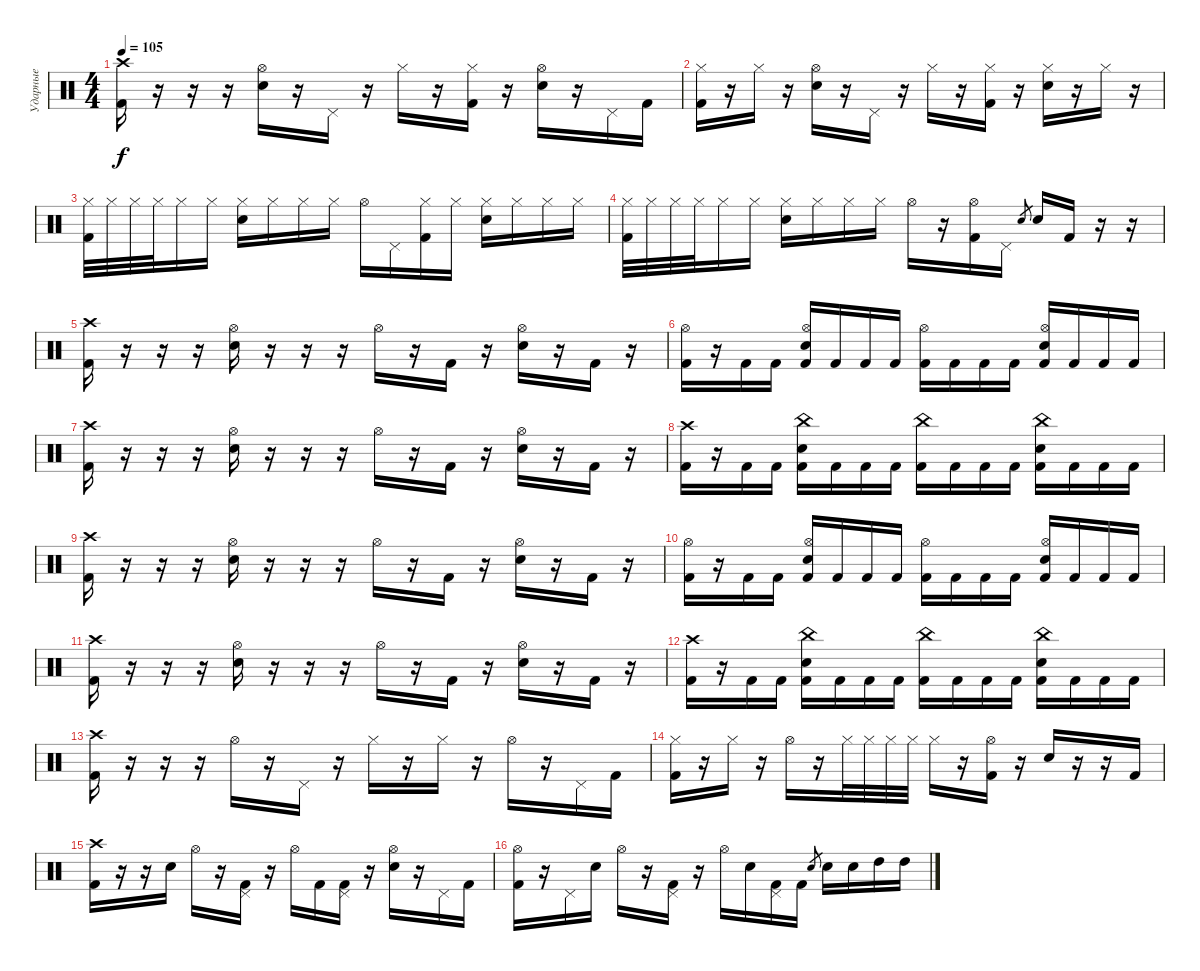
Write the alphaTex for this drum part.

\track ("Ударные" "Ударные") {instrument percussion}
\staff {score}
\articulation defaults
\ts (4 4)
\tempo 105
\clef neutral
\ks c
("Crash high (hit)" "Kick (hit) 2").16{dy f} r.16 r.16 r.16 ("Hi-Hat (open)" "Electric Snare (hit)").16 r.16 "Pedal Hi-Hat (hit)".16 r.16 "Hi-Hat (closed)".16 r.16 ("Hi-Hat (closed)" "Kick (hit) 2").16 r.16 ("Hi-Hat (open)" "Electric Snare (hit)").16 r.16 "Pedal Hi-Hat (hit)".16 "Kick (hit) 2".16 |
("Hi-Hat (closed)" "Kick (hit) 2").16 r.16 "Hi-Hat (closed)".16 r.16 ("Hi-Hat (open)" "Electric Snare (hit)").16 r.16 "Pedal Hi-Hat (hit)".16 r.16 "Hi-Hat (closed)".16 r.16 ("Hi-Hat (closed)" "Kick (hit) 2").16 r.16 ("Hi-Hat (closed)" "Electric Snare (hit)").16 r.16 "Hi-Hat (closed)".16 r.16 |
("Hi-Hat (closed)" "Kick (hit) 2").32 "Hi-Hat (closed)".32 "Hi-Hat (closed)".32 "Hi-Hat (closed)".32 "Hi-Hat (closed)".16 "Hi-Hat (closed)".16 ("Hi-Hat (closed)" "Electric Snare (hit)").16 "Hi-Hat (closed)".16 "Hi-Hat (closed)".16 "Hi-Hat (closed)".16 "Hi-Hat (open)".16 "Pedal Hi-Hat (hit)".16 ("Hi-Hat (closed)" "Kick (hit) 2").16 "Hi-Hat (closed)".16 ("Hi-Hat (closed)" "Electric Snare (hit)").16 "Hi-Hat (closed)".16 "Hi-Hat (closed)".16 "Hi-Hat (closed)".16 |
("Hi-Hat (closed)" "Kick (hit) 2").32 "Hi-Hat (closed)".32 "Hi-Hat (closed)".32 "Hi-Hat (closed)".32 "Hi-Hat (closed)".16 "Hi-Hat (closed)".16 ("Hi-Hat (closed)" "Electric Snare (hit)").16 "Hi-Hat (closed)".16 "Hi-Hat (closed)".16 "Hi-Hat (closed)".16 "Hi-Hat (open)".16 r.16 ("Hi-Hat (open)" "Kick (hit) 2").16 "Pedal Hi-Hat (hit)".16 "Electric Snare (hit)".8{gr} "Electric Snare (hit)".16 "Kick (hit) 2".16 r.16 r.16 |
("Crash high (hit)" "Kick (hit) 2").16 r.16 r.16 r.16 ("Hi-Hat (open)" "Electric Snare (hit)").16 r.16 r.16 r.16 "Hi-Hat (open)".16 r.16 "Kick (hit) 2".16 r.16 ("Hi-Hat (open)" "Electric Snare (hit)").16 r.16 "Kick (hit) 2".16 r.16 |
("Hi-Hat (open)" "Kick (hit) 2").16 r.16 "Kick (hit) 2".16 "Kick (hit) 2".16 ("Hi-Hat (open)" "Electric Snare (hit)" "Kick (hit) 2").16 "Kick (hit) 2".16 "Kick (hit) 2".16 "Kick (hit) 2".16 ("Hi-Hat (open)" "Kick (hit) 2").16 "Kick (hit) 2".16 "Kick (hit) 2".16 "Kick (hit) 2".16 ("Hi-Hat (open)" "Electric Snare (hit)" "Kick (hit) 2").16 "Kick (hit) 2".16 "Kick (hit) 2".16 "Kick (hit) 2".16 |
("Crash high (hit)" "Kick (hit) 2").16 r.16 r.16 r.16 ("Hi-Hat (open)" "Electric Snare (hit)").16 r.16 r.16 r.16 "Hi-Hat (open)".16 r.16 "Kick (hit) 2".16 r.16 ("Hi-Hat (open)" "Electric Snare (hit)").16 r.16 "Kick (hit) 2".16 r.16 |
("Crash high (hit)" "Kick (hit) 2").16 r.16 "Kick (hit) 2".16 "Kick (hit) 2".16 ("China (hit)" "Electric Snare (hit)" "Kick (hit) 2").16 "Kick (hit) 2".16 "Kick (hit) 2".16 "Kick (hit) 2".16 ("China (hit)" "Kick (hit) 2").16 "Kick (hit) 2".16 "Kick (hit) 2".16 "Kick (hit) 2".16 ("China (hit)" "Electric Snare (hit)" "Kick (hit) 2").16 "Kick (hit) 2".16 "Kick (hit) 2".16 "Kick (hit) 2".16 |
("Crash high (hit)" "Kick (hit) 2").16 r.16 r.16 r.16 ("Hi-Hat (open)" "Electric Snare (hit)").16 r.16 r.16 r.16 "Hi-Hat (open)".16 r.16 "Kick (hit) 2".16 r.16 ("Hi-Hat (open)" "Electric Snare (hit)").16 r.16 "Kick (hit) 2".16 r.16 |
("Hi-Hat (open)" "Kick (hit) 2").16 r.16 "Kick (hit) 2".16 "Kick (hit) 2".16 ("Hi-Hat (open)" "Electric Snare (hit)" "Kick (hit) 2").16 "Kick (hit) 2".16 "Kick (hit) 2".16 "Kick (hit) 2".16 ("Hi-Hat (open)" "Kick (hit) 2").16 "Kick (hit) 2".16 "Kick (hit) 2".16 "Kick (hit) 2".16 ("Hi-Hat (open)" "Electric Snare (hit)" "Kick (hit) 2").16 "Kick (hit) 2".16 "Kick (hit) 2".16 "Kick (hit) 2".16 |
("Crash high (hit)" "Kick (hit) 2").16 r.16 r.16 r.16 ("Hi-Hat (open)" "Electric Snare (hit)").16 r.16 r.16 r.16 "Hi-Hat (open)".16 r.16 "Kick (hit) 2".16 r.16 ("Hi-Hat (open)" "Electric Snare (hit)").16 r.16 "Kick (hit) 2".16 r.16 |
("Crash high (hit)" "Kick (hit) 2").16 r.16 "Kick (hit) 2".16 "Kick (hit) 2".16 ("China (hit)" "Electric Snare (hit)" "Kick (hit) 2").16 "Kick (hit) 2".16 "Kick (hit) 2".16 "Kick (hit) 2".16 ("China (hit)" "Kick (hit) 2").16 "Kick (hit) 2".16 "Kick (hit) 2".16 "Kick (hit) 2".16 ("China (hit)" "Electric Snare (hit)" "Kick (hit) 2").16 "Kick (hit) 2".16 "Kick (hit) 2".16 "Kick (hit) 2".16 |
("Crash high (hit)" "Kick (hit) 2").16 r.16 r.16 r.16 "Hi-Hat (open)".16 r.16 "Pedal Hi-Hat (hit)".16 r.16 "Hi-Hat (closed)".16 r.16 "Hi-Hat (closed)".16 r.16 "Hi-Hat (open)".16 r.16 "Pedal Hi-Hat (hit)".16 "Kick (hit) 2".16 |
("Hi-Hat (closed)" "Kick (hit) 2").16 r.16 "Hi-Hat (closed)".16 r.16 "Hi-Hat (open)".16 r.16 "Hi-Hat (closed)".32 "Hi-Hat (closed)".32 "Hi-Hat (closed)".32 "Hi-Hat (closed)".32 "Hi-Hat (closed)".16 r.16 ("Hi-Hat (open)" "Kick (hit) 2").16 r.16 "Electric Snare (hit)".16 r.16 r.16 "Kick (hit) 2".16 |
("Crash high (hit)" "Kick (hit) 2").16 r.16 r.16 "Electric Snare (hit)".16 "Hi-Hat (open)".16 r.16 ("Pedal Hi-Hat (hit)" "Kick (hit) 2").16 r.16 "Hi-Hat (open)".16 "Kick (hit) 2".16 ("Pedal Hi-Hat (hit)" "Kick (hit) 2").16 r.16 ("Hi-Hat (open)" "Electric Snare (hit)").16 r.16 "Pedal Hi-Hat (hit)".16 "Kick (hit) 2".16 |
("Hi-Hat (open)" "Kick (hit) 2").16 r.16 "Pedal Hi-Hat (hit)".16 "Electric Snare (hit)".16 "Hi-Hat (open)".16 r.16 ("Pedal Hi-Hat (hit)" "Kick (hit) 2").16 r.16 "Hi-Hat (open)".16 "Electric Snare (hit)".16 ("Pedal Hi-Hat (hit)" "Kick (hit) 2").16 "Kick (hit) 2".16 "Electric Snare (hit)".8{gr} "Electric Snare (hit)".16 "Electric Snare (hit)".16 "High Tom (hit)".16 "High Tom (hit)".16
